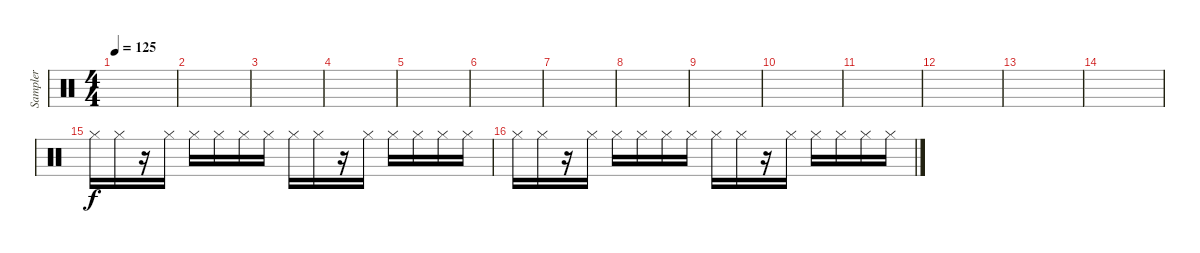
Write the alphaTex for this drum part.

\track ("Sampler" "Sampler") {instrument percussion}
\staff {score}
\articulation defaults
\ts (4 4)
\tempo 125
\clef neutral
\ks c
|
|
|
|
|
|
|
|
|
|
|
|
|
|
"Hi-Hat (closed)".16 "Hi-Hat (closed)".16 r.16 "Hi-Hat (closed)".16 "Hi-Hat (closed)".16 "Hi-Hat (closed)".16 "Hi-Hat (closed)".16 "Hi-Hat (closed)".16 "Hi-Hat (closed)".16 "Hi-Hat (closed)".16 r.16 "Hi-Hat (closed)".16 "Hi-Hat (closed)".16 "Hi-Hat (closed)".16 "Hi-Hat (closed)".16 "Hi-Hat (closed)".16 |
"Hi-Hat (closed)".16 "Hi-Hat (closed)".16 r.16 "Hi-Hat (closed)".16 "Hi-Hat (closed)".16 "Hi-Hat (closed)".16 "Hi-Hat (closed)".16 "Hi-Hat (closed)".16 "Hi-Hat (closed)".16 "Hi-Hat (closed)".16 r.16 "Hi-Hat (closed)".16 "Hi-Hat (closed)".16 "Hi-Hat (closed)".16 "Hi-Hat (closed)".16 "Hi-Hat (closed)".16
